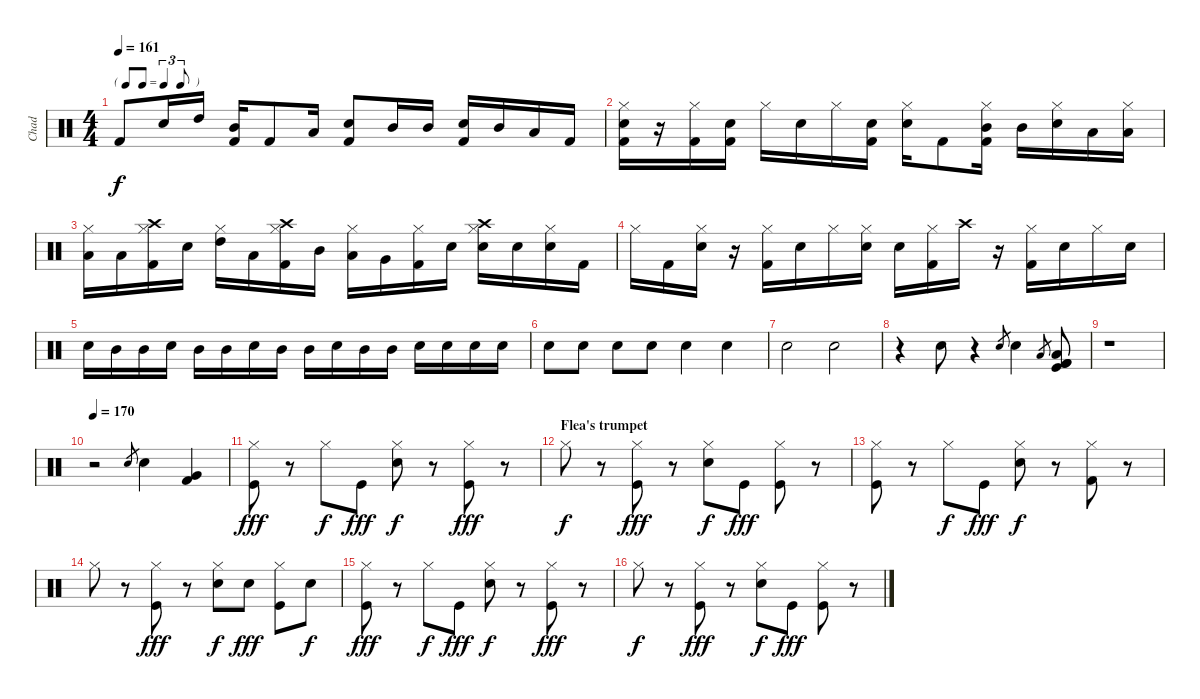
\track ("Chad" "Chad") {instrument percussion}
\staff {score}
\articulation defaults
\ts (4 4)
\tf triplet8th
\tempo 161
\clef neutral
\ks c "Kick (hit) 2".8{dy f} "Snare (hit) 2".16 "High Tom (hit)".16
("Mid Tom (hit)" "Kick (hit) 2").16 "Kick (hit) 2".8 "Low Tom (hit)".16 ("Snare (hit) 2" "Kick (hit) 2").8 "Mid Tom (hit)".16 "Mid Tom (hit)".16 ("Snare (hit) 2" "Kick (hit) 2").16 "Mid Tom (hit)".16 "Low Tom (hit)".16 "Kick (hit) 2".16 |
("Hi-Hat (closed)" "Snare (hit) 2" "Kick (hit) 2").16 r.16 ("Hi-Hat (closed)" "Kick (hit) 2").16 ("Snare (hit) 2" "Kick (hit) 2").16 "Hi-Hat (closed)".16 "Snare (hit) 2".16 "Hi-Hat (closed)".16 ("Snare (hit) 2" "Kick (hit) 2").16 ("Hi-Hat (closed)" "Snare (hit) 2").16 "Kick (hit) 2".8 ("Hi-Hat (closed)" "Mid Tom (hit)" "Kick (hit) 2").16 "Mid Tom (hit)".16 ("Hi-Hat (closed)" "Snare (hit) 2").16 "Low Tom (hit)".16 ("Hi-Hat (closed)" "Low Tom (hit)").16 |
("Hi-Hat (closed)" "Low Tom (hit)").16 "Low Tom (hit)".16 ("Hi-Hat (closed)" "Kick (hit) 2" "Crash high (hit)").16 "Snare (hit) 2".16 ("Hi-Hat (closed)" "High Tom (hit)").16 "Low Tom (hit)".16 ("Hi-Hat (closed)" "Kick (hit) 2" "Crash high (hit)").16 "Mid Tom (hit)".16 ("Hi-Hat (closed)" "Low Tom (hit)").16 "Very Low Tom (hit)".16 ("Hi-Hat (closed)" "Kick (hit) 2").16 "Snare (hit) 2".16 ("Hi-Hat (closed)" "Snare (hit) 2" "Crash high (hit)").16 "Snare (hit) 2".16 ("Hi-Hat (closed)" "Snare (hit) 2").16 "Kick (hit) 2".16 |
"Hi-Hat (closed)".16 "Kick (hit) 2".16 ("Hi-Hat (closed)" "Snare (hit) 2").16 r.16 ("Hi-Hat (closed)" "Kick (hit) 2").16 "Snare (hit) 2".16 "Hi-Hat (closed)".16 ("Hi-Hat (closed)" "Snare (hit) 2").16 "Snare (hit) 2".16 ("Hi-Hat (closed)" "Kick (hit) 2").16 "Crash high (hit)".16 r.16 ("Hi-Hat (closed)" "Kick (hit) 2").16 "Snare (hit) 2".16 "Hi-Hat (closed)".16 "Snare (hit) 2".16 |
"Snare (hit) 2".16 "Mid Tom (hit)".16 "Mid Tom (hit)".16 "Snare (hit) 2".16 "Mid Tom (hit)".16 "Mid Tom (hit)".16 "Snare (hit) 2".16 "Mid Tom (hit)".16 "Mid Tom (hit)".16 "Snare (hit) 2".16 "Mid Tom (hit)".16 "Mid Tom (hit)".16 "Snare (hit) 2".16 "Snare (hit) 2".16 "Snare (hit) 2".16 "Snare (hit) 2".16 |
"Snare (hit) 2".8 "Snare (hit) 2".8 "Snare (hit) 2".8 "Snare (hit) 2".8 "Snare (hit) 2".4 "Snare (hit) 2".4 |
"Snare (hit) 2".2 "Snare (hit) 2".2 |
r.4 "Snare (hit) 2".8 r.4 "Snare (hit) 2".8{gr} "Snare (hit) 2".4 "Low Tom (hit)".8{gr} ("Kick (hit)" "Kick (hit) 2" "Kick (hit) 2" "Low Tom (hit)").8 |
r.1 |
\tempo 170
r.2 "Snare (hit) 2".8{gr} "Snare (hit) 2".4 ("Very Low Tom (hit)" "Kick (hit) 2").4 |
("Hi-Hat (closed)" "Kick (hit)").8{dy fff} r.8 "Hi-Hat (closed)".8{dy f} "Kick (hit)".8{dy fff} ("Hi-Hat (closed)" "Snare (hit) 2").8{dy f} r.8 ("Hi-Hat (closed)" "Kick (hit)").8{dy fff} r.8 |
\section ("" "Flea's trumpet")
"Hi-Hat (closed)".8{dy f} r.8 ("Hi-Hat (closed)" "Kick (hit)").8{dy fff} r.8 ("Hi-Hat (closed)" "Snare (hit) 2").8{dy f} "Kick (hit)".8{dy fff} ("Hi-Hat (closed)" "Kick (hit)").8 r.8 |
("Hi-Hat (closed)" "Kick (hit)").8 r.8 "Hi-Hat (closed)".8{dy f} "Kick (hit)".8{dy fff} ("Hi-Hat (closed)" "Snare (hit) 2").8{dy f} r.8 ("Hi-Hat (closed)" "Kick (hit) 2").8 r.8 |
"Hi-Hat (closed)".8 r.8 ("Hi-Hat (closed)" "Kick (hit)").8{dy fff} r.8 ("Hi-Hat (closed)" "Snare (hit) 2").8{dy f} "Snare (hit) 2".8{dy fff} ("Hi-Hat (closed)" "Kick (hit)").8 "Snare (hit) 2".8{dy f} |
("Hi-Hat (closed)" "Kick (hit)").8{dy fff} r.8 "Hi-Hat (closed)".8{dy f} "Kick (hit)".8{dy fff} ("Hi-Hat (closed)" "Snare (hit) 2").8{dy f} r.8 ("Hi-Hat (closed)" "Kick (hit)").8{dy fff} r.8 |
"Hi-Hat (closed)".8{dy f} r.8 ("Hi-Hat (closed)" "Kick (hit)").8{dy fff} r.8 ("Hi-Hat (closed)" "Snare (hit) 2").8{dy f} "Kick (hit)".8{dy fff} ("Hi-Hat (closed)" "Kick (hit)").8 r.8
